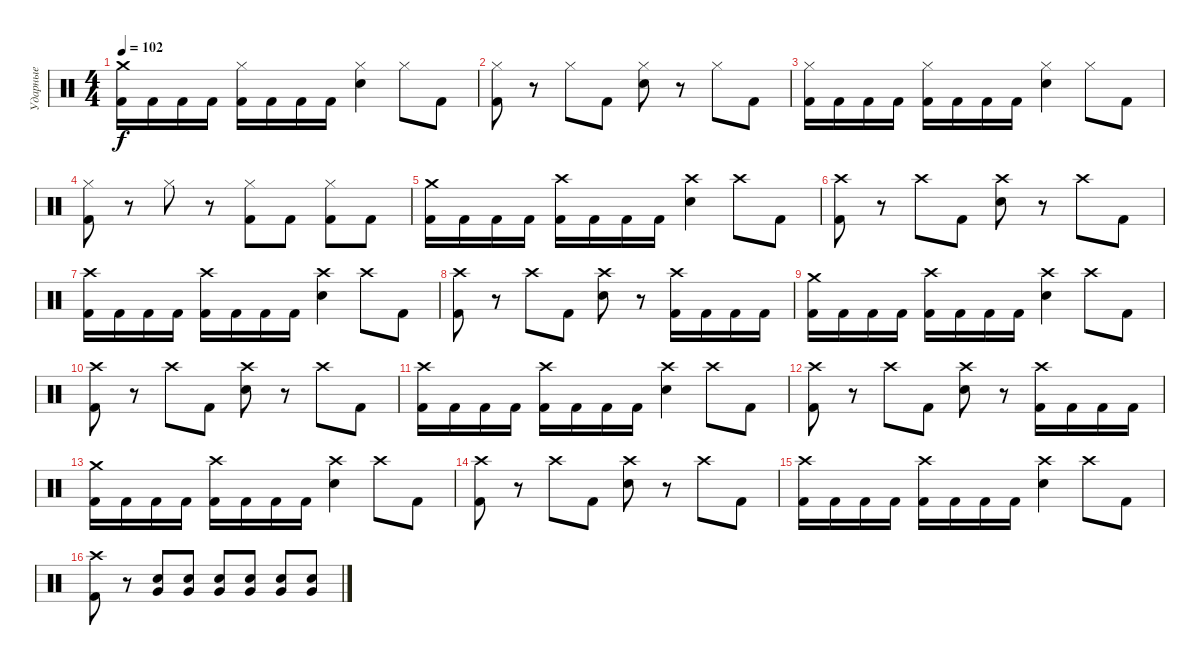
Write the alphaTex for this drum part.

\track ("Ударные" "Ударные") {instrument percussion}
\staff {score}
\articulation defaults
\ts (4 4)
\tempo 102
\clef neutral
\ks c
("Crash medium (hit)" "Kick (hit) 2").16{dy f} "Kick (hit) 2".16 "Kick (hit) 2".16 "Kick (hit) 2".16 ("Hi-Hat (closed)" "Kick (hit) 2").16 "Kick (hit) 2".16 "Kick (hit) 2".16 "Kick (hit) 2".16 ("Hi-Hat (closed)" "Electric Snare (hit)").4 "Hi-Hat (closed)".8 "Kick (hit) 2".8 |
("Hi-Hat (closed)" "Kick (hit) 2").8 r.8 "Hi-Hat (closed)".8 "Kick (hit) 2".8 ("Hi-Hat (closed)" "Electric Snare (hit)").8 r.8 "Hi-Hat (closed)".8 "Kick (hit) 2".8 |
("Hi-Hat (closed)" "Kick (hit) 2").16 "Kick (hit) 2".16 "Kick (hit) 2".16 "Kick (hit) 2".16 ("Hi-Hat (closed)" "Kick (hit) 2").16 "Kick (hit) 2".16 "Kick (hit) 2".16 "Kick (hit) 2".16 ("Hi-Hat (closed)" "Electric Snare (hit)").4 "Hi-Hat (closed)".8 "Kick (hit) 2".8 |
("Hi-Hat (closed)" "Kick (hit) 2").8 r.8 "Hi-Hat (closed)".8 r.8 ("Hi-Hat (closed)" "Kick (hit) 2").8 "Kick (hit) 2".8 ("Hi-Hat (closed)" "Kick (hit) 2").8 "Kick (hit) 2".8 |
("Crash medium (hit)" "Kick (hit) 2").16 "Kick (hit) 2".16 "Kick (hit) 2".16 "Kick (hit) 2".16 ("Crash high (hit)" "Kick (hit) 2").16 "Kick (hit) 2".16 "Kick (hit) 2".16 "Kick (hit) 2".16 ("Crash high (hit)" "Electric Snare (hit)").4 "Crash high (hit)".8 "Kick (hit) 2".8 |
("Crash high (hit)" "Kick (hit) 2").8 r.8 "Crash high (hit)".8 "Kick (hit) 2".8 ("Crash high (hit)" "Electric Snare (hit)").8 r.8 "Crash high (hit)".8 "Kick (hit) 2".8 |
("Crash high (hit)" "Kick (hit) 2").16 "Kick (hit) 2".16 "Kick (hit) 2".16 "Kick (hit) 2".16 ("Crash high (hit)" "Kick (hit) 2").16 "Kick (hit) 2".16 "Kick (hit) 2".16 "Kick (hit) 2".16 ("Crash high (hit)" "Electric Snare (hit)").4 "Crash high (hit)".8 "Kick (hit) 2".8 |
("Crash high (hit)" "Kick (hit) 2").8 r.8 "Crash high (hit)".8 "Kick (hit) 2".8 ("Crash high (hit)" "Electric Snare (hit)").8 r.8 ("Crash high (hit)" "Kick (hit) 2").16 "Kick (hit) 2".16 "Kick (hit) 2".16 "Kick (hit) 2".16 |
("Crash medium (hit)" "Kick (hit) 2").16 "Kick (hit) 2".16 "Kick (hit) 2".16 "Kick (hit) 2".16 ("Crash high (hit)" "Kick (hit) 2").16 "Kick (hit) 2".16 "Kick (hit) 2".16 "Kick (hit) 2".16 ("Crash high (hit)" "Electric Snare (hit)").4 "Crash high (hit)".8 "Kick (hit) 2".8 |
("Crash high (hit)" "Kick (hit) 2").8 r.8 "Crash high (hit)".8 "Kick (hit) 2".8 ("Crash high (hit)" "Electric Snare (hit)").8 r.8 "Crash high (hit)".8 "Kick (hit) 2".8 |
("Crash high (hit)" "Kick (hit) 2").16 "Kick (hit) 2".16 "Kick (hit) 2".16 "Kick (hit) 2".16 ("Crash high (hit)" "Kick (hit) 2").16 "Kick (hit) 2".16 "Kick (hit) 2".16 "Kick (hit) 2".16 ("Crash high (hit)" "Electric Snare (hit)").4 "Crash high (hit)".8 "Kick (hit) 2".8 |
("Crash high (hit)" "Kick (hit) 2").8 r.8 "Crash high (hit)".8 "Kick (hit) 2".8 ("Crash high (hit)" "Electric Snare (hit)").8 r.8 ("Crash high (hit)" "Kick (hit) 2").16 "Kick (hit) 2".16 "Kick (hit) 2".16 "Kick (hit) 2".16 |
("Crash medium (hit)" "Kick (hit) 2").16 "Kick (hit) 2".16 "Kick (hit) 2".16 "Kick (hit) 2".16 ("Crash high (hit)" "Kick (hit) 2").16 "Kick (hit) 2".16 "Kick (hit) 2".16 "Kick (hit) 2".16 ("Crash high (hit)" "Electric Snare (hit)").4 "Crash high (hit)".8 "Kick (hit) 2".8 |
("Crash high (hit)" "Kick (hit) 2").8 r.8 "Crash high (hit)".8 "Kick (hit) 2".8 ("Crash high (hit)" "Electric Snare (hit)").8 r.8 "Crash high (hit)".8 "Kick (hit) 2".8 |
("Crash high (hit)" "Kick (hit) 2").16 "Kick (hit) 2".16 "Kick (hit) 2".16 "Kick (hit) 2".16 ("Crash high (hit)" "Kick (hit) 2").16 "Kick (hit) 2".16 "Kick (hit) 2".16 "Kick (hit) 2".16 ("Crash high (hit)" "Electric Snare (hit)").4 "Crash high (hit)".8 "Kick (hit) 2".8 |
("Crash high (hit)" "Kick (hit) 2").8 r.8 ("Very Low Tom (hit)" "Electric Snare (hit)").8 ("Very Low Tom (hit)" "Electric Snare (hit)").8 ("Very Low Tom (hit)" "Electric Snare (hit)").8 ("Very Low Tom (hit)" "Electric Snare (hit)").8 ("Very Low Tom (hit)" "Electric Snare (hit)").8 ("Very Low Tom (hit)" "Electric Snare (hit)").8
